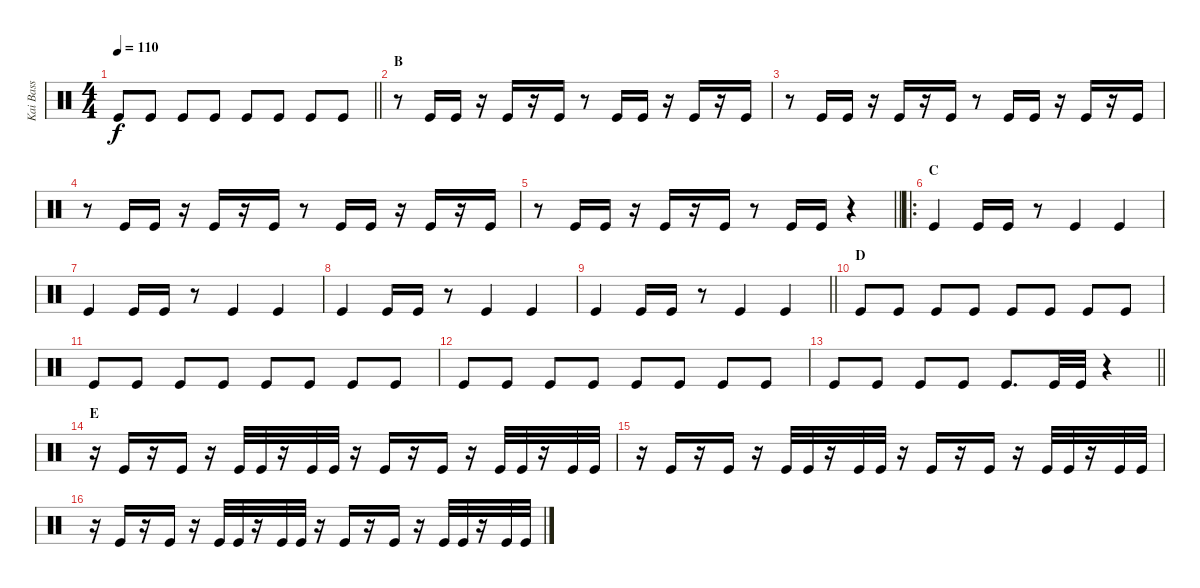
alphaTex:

\track ("Kai Bass" "Kai Bass") {instrument percussion}
\staff {score}
\articulation defaults
\ts (4 4)
\tempo 110
\clef neutral
\barLineRight lightlight
\ks c "Kick (hit)".8{dy f} "Kick (hit)".8 "Kick (hit)".8 "Kick (hit)".8 "Kick (hit)".8 "Kick (hit)".8 "Kick (hit)".8 "Kick (hit)".8
|
\section ("" "B")
r.8 "Kick (hit)".16 "Kick (hit)".16 r.16 "Kick (hit)".16 r.16 "Kick (hit)".16 r.8 "Kick (hit)".16 "Kick (hit)".16 r.16 "Kick (hit)".16 r.16 "Kick (hit)".16 |
r.8 "Kick (hit)".16 "Kick (hit)".16 r.16 "Kick (hit)".16 r.16 "Kick (hit)".16 r.8 "Kick (hit)".16 "Kick (hit)".16 r.16 "Kick (hit)".16 r.16 "Kick (hit)".16 |
r.8 "Kick (hit)".16 "Kick (hit)".16 r.16 "Kick (hit)".16 r.16 "Kick (hit)".16 r.8 "Kick (hit)".16 "Kick (hit)".16 r.16 "Kick (hit)".16 r.16 "Kick (hit)".16 |
\barLineRight lightlight
r.8 "Kick (hit)".16 "Kick (hit)".16 r.16 "Kick (hit)".16 r.16 "Kick (hit)".16 r.8 "Kick (hit)".16 "Kick (hit)".16 r.4 |
\ro
\section ("" "C")
"Kick (hit)".4 "Kick (hit)".16 "Kick (hit)".16 r.8 "Kick (hit)".4 "Kick (hit)".4 |
"Kick (hit)".4 "Kick (hit)".16 "Kick (hit)".16 r.8 "Kick (hit)".4 "Kick (hit)".4 |
"Kick (hit)".4 "Kick (hit)".16 "Kick (hit)".16 r.8 "Kick (hit)".4 "Kick (hit)".4 |
\barLineRight lightlight "Kick (hit)".4 "Kick (hit)".16 "Kick (hit)".16
r.8 "Kick (hit)".4 "Kick (hit)".4 |
\section ("" "D")
"Kick (hit)".8 "Kick (hit)".8 "Kick (hit)".8 "Kick (hit)".8 "Kick (hit)".8 "Kick (hit)".8 "Kick (hit)".8 "Kick (hit)".8 |
"Kick (hit)".8 "Kick (hit)".8 "Kick (hit)".8 "Kick (hit)".8 "Kick (hit)".8 "Kick (hit)".8 "Kick (hit)".8 "Kick (hit)".8 |
"Kick (hit)".8 "Kick (hit)".8 "Kick (hit)".8 "Kick (hit)".8 "Kick (hit)".8 "Kick (hit)".8 "Kick (hit)".8 "Kick (hit)".8 |
\barLineRight lightlight "Kick (hit)".8 "Kick (hit)".8 "Kick (hit)".8 "Kick (hit)".8 "Kick (hit)".8{d} "Kick (hit)".32 "Kick (hit)".32
r.4 |
\section ("" "E")
r.16 "Kick (hit)".16 r.16 "Kick (hit)".16 r.16 "Kick (hit)".32 "Kick (hit)".32 r.16 "Kick (hit)".32 "Kick (hit)".32 r.16 "Kick (hit)".16 r.16 "Kick (hit)".16 r.16 "Kick (hit)".32 "Kick (hit)".32 r.16 "Kick (hit)".32 "Kick (hit)".32 |
r.16 "Kick (hit)".16 r.16 "Kick (hit)".16 r.16 "Kick (hit)".32 "Kick (hit)".32 r.16 "Kick (hit)".32 "Kick (hit)".32 r.16 "Kick (hit)".16 r.16 "Kick (hit)".16 r.16 "Kick (hit)".32 "Kick (hit)".32 r.16 "Kick (hit)".32 "Kick (hit)".32 |
r.16 "Kick (hit)".16 r.16 "Kick (hit)".16 r.16 "Kick (hit)".32 "Kick (hit)".32 r.16 "Kick (hit)".32 "Kick (hit)".32 r.16 "Kick (hit)".16 r.16 "Kick (hit)".16 r.16 "Kick (hit)".32 "Kick (hit)".32 r.16 "Kick (hit)".32 "Kick (hit)".32
